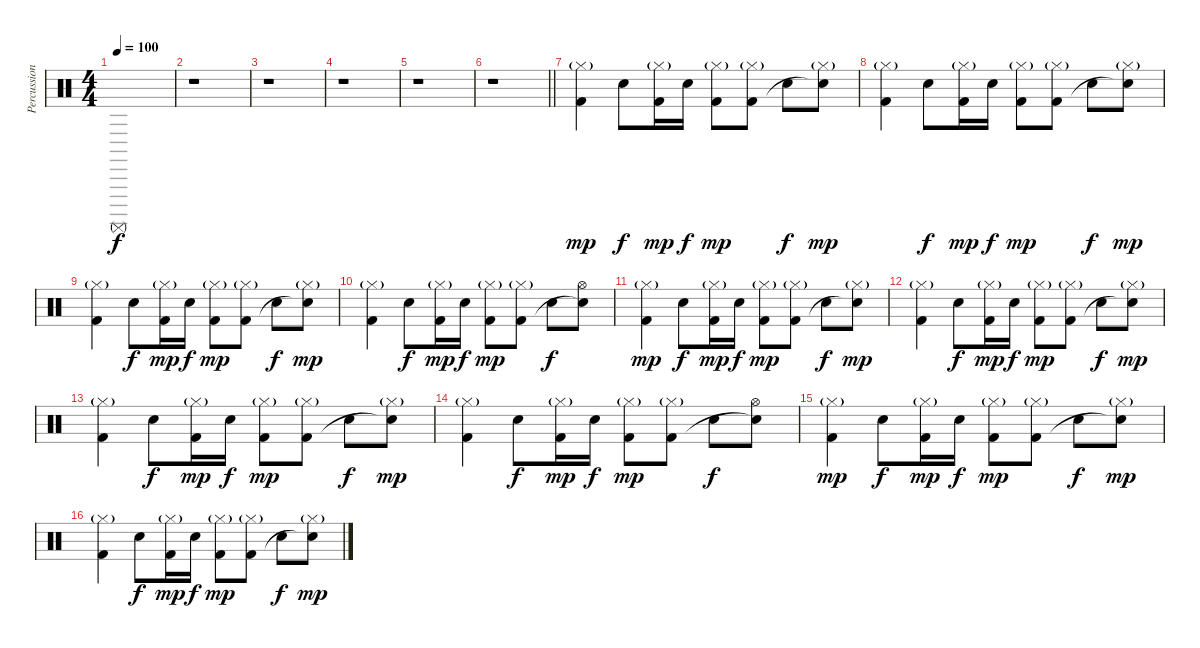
\track ("Percussion" "Percussion") {instrument percussion}
\staff {score}
\articulation defaults
\ts (4 4)
\tempo 100
\clef neutral
\ks c "Surdo (mute)".1{dy f}
|
r.1 |
r.1 |
r.1 |
r.1 |
\barLineRight lightlight
r.1{volume 13} |
("Hi-Hat (closed)"{g} "Kick (hit) 2").4{dy mp} "Electric Snare (hit)".8{dy f} ("Hi-Hat (closed)"{g} "Kick (hit) 2").16{dy mp} "Electric Snare (hit)".16{dy f} ("Hi-Hat (closed)"{g} "Kick (hit) 2").8{dy mp} ("Hi-Hat (closed)"{g} "Kick (hit) 2").8 "Electric Snare (hit)".8{dy f} ("Hi-Hat (closed)"{g} "Snare (hit)"{t}).8{dy mp} |
("Hi-Hat (closed)"{g} "Kick (hit) 2").4 "Electric Snare (hit)".8{dy f} ("Hi-Hat (closed)"{g} "Kick (hit) 2").16{dy mp} "Electric Snare (hit)".16{dy f} ("Hi-Hat (closed)"{g} "Kick (hit) 2").8{dy mp} ("Hi-Hat (closed)"{g} "Kick (hit) 2").8 "Electric Snare (hit)".8{dy f} ("Hi-Hat (closed)"{g} "Snare (hit)"{t}).8{dy mp} |
("Hi-Hat (closed)"{g} "Kick (hit) 2").4 "Electric Snare (hit)".8{dy f} ("Hi-Hat (closed)"{g} "Kick (hit) 2").16{dy mp} "Electric Snare (hit)".16{dy f} ("Hi-Hat (closed)"{g} "Kick (hit) 2").8{dy mp} ("Hi-Hat (closed)"{g} "Kick (hit) 2").8 "Electric Snare (hit)".8{dy f} ("Hi-Hat (closed)"{g} "Snare (hit)"{t}).8{dy mp} |
("Hi-Hat (closed)"{g} "Kick (hit) 2").4 "Electric Snare (hit)".8{dy f} ("Hi-Hat (closed)"{g} "Kick (hit) 2").16{dy mp} "Electric Snare (hit)".16{dy f} ("Hi-Hat (closed)"{g} "Kick (hit) 2").8{dy mp} ("Hi-Hat (closed)"{g} "Kick (hit) 2").8 "Electric Snare (hit)".8{dy f} ("Hi-Hat (open)" "Snare (hit)"{t}).8 |
("Hi-Hat (closed)"{g} "Kick (hit) 2").4{dy mp} "Electric Snare (hit)".8{dy f} ("Hi-Hat (closed)"{g} "Kick (hit) 2").16{dy mp} "Electric Snare (hit)".16{dy f} ("Hi-Hat (closed)"{g} "Kick (hit) 2").8{dy mp} ("Hi-Hat (closed)"{g} "Kick (hit) 2").8 "Electric Snare (hit)".8{dy f} ("Hi-Hat (closed)"{g} "Snare (hit)"{t}).8{dy mp} |
("Hi-Hat (closed)"{g} "Kick (hit) 2").4 "Electric Snare (hit)".8{dy f} ("Hi-Hat (closed)"{g} "Kick (hit) 2").16{dy mp} "Electric Snare (hit)".16{dy f} ("Hi-Hat (closed)"{g} "Kick (hit) 2").8{dy mp} ("Hi-Hat (closed)"{g} "Kick (hit) 2").8 "Electric Snare (hit)".8{dy f} ("Hi-Hat (closed)"{g} "Snare (hit)"{t}).8{dy mp} |
("Hi-Hat (closed)"{g} "Kick (hit) 2").4 "Electric Snare (hit)".8{dy f} ("Hi-Hat (closed)"{g} "Kick (hit) 2").16{dy mp} "Electric Snare (hit)".16{dy f} ("Hi-Hat (closed)"{g} "Kick (hit) 2").8{dy mp} ("Hi-Hat (closed)"{g} "Kick (hit) 2").8 "Electric Snare (hit)".8{dy f} ("Hi-Hat (closed)"{g} "Snare (hit)"{t}).8{dy mp} |
("Hi-Hat (closed)"{g} "Kick (hit) 2").4 "Electric Snare (hit)".8{dy f} ("Hi-Hat (closed)"{g} "Kick (hit) 2").16{dy mp} "Electric Snare (hit)".16{dy f} ("Hi-Hat (closed)"{g} "Kick (hit) 2").8{dy mp} ("Hi-Hat (closed)"{g} "Kick (hit) 2").8 "Electric Snare (hit)".8{dy f} ("Hi-Hat (open)" "Snare (hit)"{t}).8 |
("Hi-Hat (closed)"{g} "Kick (hit) 2").4{dy mp} "Electric Snare (hit)".8{dy f} ("Hi-Hat (closed)"{g} "Kick (hit) 2").16{dy mp} "Electric Snare (hit)".16{dy f} ("Hi-Hat (closed)"{g} "Kick (hit) 2").8{dy mp} ("Hi-Hat (closed)"{g} "Kick (hit) 2").8 "Electric Snare (hit)".8{dy f} ("Hi-Hat (closed)"{g} "Snare (hit)"{t}).8{dy mp} |
("Hi-Hat (closed)"{g} "Kick (hit) 2").4 "Electric Snare (hit)".8{dy f} ("Hi-Hat (closed)"{g} "Kick (hit) 2").16{dy mp} "Electric Snare (hit)".16{dy f} ("Hi-Hat (closed)"{g} "Kick (hit) 2").8{dy mp} ("Hi-Hat (closed)"{g} "Kick (hit) 2").8 "Electric Snare (hit)".8{dy f} ("Hi-Hat (closed)"{g} "Snare (hit)"{t}).8{dy mp}
